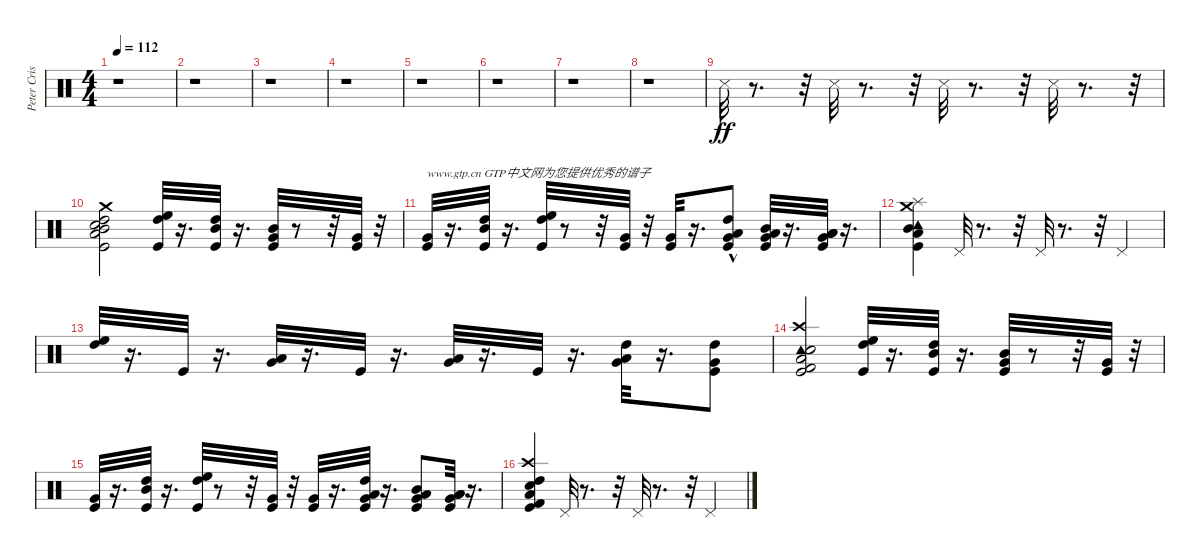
\track ("Peter Criss" "Peter Cris") {instrument percussion}
\staff {score}
\articulation defaults
\ts (4 4)
\tempo 112
\clef neutral
\ks c
r.1{dy ff} |
r.1 |
r.1 |
r.1 |
r.1 |
r.1 |
r.1 |
r.1 |
"Snare (side stick) 3".32 r.8{d} r.32 "Snare (side stick) 3".32 r.8{d} r.32 "Snare (side stick) 3".32 r.8{d} r.32 "Snare (side stick) 3".32 r.8{d} r.32 |
("High Tom (hit)" "Mid Tom (hit)" "Kick (hit)" "Low Tom (hit)" "Crash medium (hit)" "Snare (hit) 2").2 ("Kick (hit)" "High Tom (hit)" "High Floor Tom (hit)").32 r.16{d} ("Kick (hit)" "Mid Tom (hit)" "High Tom (hit)").32 r.16{d} ("Mid Tom (hit)" "Very Low Tom (hit)" "Kick (hit)").32 r.8 r.32 ("Kick (hit)" "Very Low Tom (hit)").32 r.32 |
("Very Low Tom (hit)" "Kick (hit)").32{txt "www.gtp.cn GTP中文网为您提供优秀的谱子"} r.16{d} ("High Tom (hit)" "Mid Tom (hit)" "Kick (hit)").32 r.16{d} ("High Tom (hit)" "Kick (hit)" "High Floor Tom (hit)").32 r.8 r.32 ("Kick (hit)" "Very Low Tom (hit)").32 r.32 ("Kick (hit)" "Very Low Tom (hit)").32 r.16{d} ("Very Low Tom (hit)" "Low Floor Tom (hit)" "Kick (hit)" "High Tom (hit)"{hac}).8 ("Very Low Tom (hit)" "Kick (hit)" "Mid Tom (hit)" "Low Floor Tom (hit)").32 r.16{d} ("Low Tom (hit)" "Kick (hit)" "Very Low Tom (hit)" "Low Floor Tom (hit)").32 r.16{d} |
("Low Tom (hit)" "Crash medium (hit)" "Splash (hit)" "Mid Tom (hit)" "Tambourine (hit)" "Kick (hit)").4 "Pedal Hi-Hat (hit)".32 r.8{d} r.32 "Pedal Hi-Hat (hit)".32 r.8{d} r.32 "Pedal Hi-Hat (hit)".4 |
("High Tom (hit)" "High Floor Tom (hit)").32 r.16{d} "Kick (hit)".32 r.16{d} ("Very Low Tom (hit)" "Low Tom (hit)").32 r.16{d} "Kick (hit)".32 r.16{d} ("Very Low Tom (hit)" "Low Tom (hit)").32 r.16{d} "Kick (hit)".32 r.16{d} ("Low Tom (hit)" "Very Low Tom (hit)" "High Tom (hit)").32 r.16{d} ("Kick (hit)" "High Tom (hit)" "Very Low Tom (hit)").8 |
("Tambourine (hit)" "Crash high (hit)" "Kick (hit) 2" "Snare (hit) 2" "Low Tom (hit)" "Kick (hit)").2 ("High Floor Tom (hit)" "Kick (hit)" "High Tom (hit)").32 r.16{d} ("High Tom (hit)" "Kick (hit)" "Mid Tom (hit)").32 r.16{d} ("Very Low Tom (hit)" "Kick (hit)" "Mid Tom (hit)").32 r.8 r.32 ("Very Low Tom (hit)" "Kick (hit)").32 r.32 |
("Very Low Tom (hit)" "Kick (hit)").32 r.16{d} ("Kick (hit)" "High Tom (hit)" "Mid Tom (hit)").32 r.16{d} ("High Tom (hit)" "Kick (hit)" "High Floor Tom (hit)").32 r.8 r.32 ("Kick (hit)" "Very Low Tom (hit)").32 r.32 ("Very Low Tom (hit)" "Kick (hit)").32 r.16{d} ("Kick (hit)" "Very Low Tom (hit)" "Low Floor Tom (hit)" "High Tom (hit)").32 r.16{d} ("Mid Tom (hit)" "Kick (hit)" "Low Floor Tom (hit)" "Very Low Tom (hit)").8 ("Kick (hit)" "Low Tom (hit)" "Very Low Tom (hit)" "Low Floor Tom (hit)").32 r.16{d} |
("Low Tom (hit)" "Crash high (hit)" "Snare (hit) 2" "Kick (hit)" "Kick (hit) 2" "High Tom (hit)").4 "Pedal Hi-Hat (hit)".32 r.8{d} r.32 "Pedal Hi-Hat (hit)".32 r.8{d} r.32 "Pedal Hi-Hat (hit)".4
